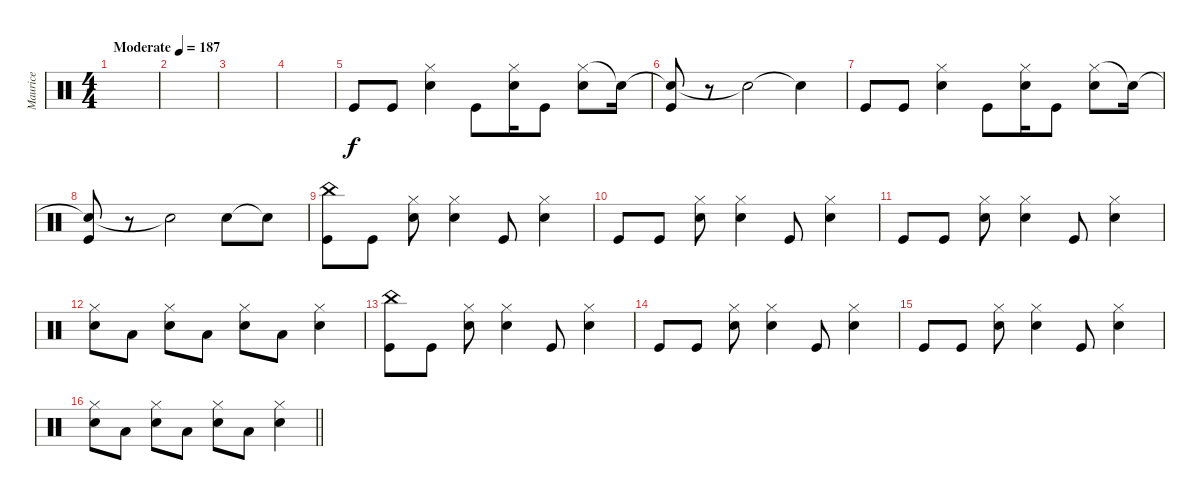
\track ("Maurice" "Maurice") {instrument percussion}
\staff {score}
\articulation defaults
\ts (4 4)
\tempo (187 "Moderate")
\clef neutral
\ks c
|
|
|
|
"Kick (hit)".8 "Kick (hit)".8 ("Hi-Hat (closed)" "Snare (hit) 2").4 "Kick (hit)".8 ("Hi-Hat (closed)" "Snare (hit) 2").16 "Kick (hit)".8 ("Hi-Hat (closed)" "Snare (hit) 2").8 "Snare (hit)"{t}.16 |
("Snare (hit)"{t} "Kick (hit)").8 r.8 "Snare (hit)"{t}.2 "Snare (hit)"{t}.4 |
"Kick (hit)".8 "Kick (hit)".8 ("Hi-Hat (closed)" "Snare (hit) 2").4 "Kick (hit)".8 ("Hi-Hat (closed)" "Snare (hit) 2").16 "Kick (hit)".8 ("Hi-Hat (closed)" "Snare (hit) 2").8 "Snare (hit)"{t}.16 |
("Snare (hit)"{t} "Kick (hit)").8 r.8 "Snare (hit)"{t}.2 "Snare (hit) 2".8 "Snare (hit)"{t}.8 |
("China (hit)" "Kick (hit)").8 "Kick (hit)".8 ("Hi-Hat (closed)" "Snare (hit) 2").8 ("Hi-Hat (closed)" "Snare (hit) 2").4 "Kick (hit)".8 ("Hi-Hat (closed)" "Snare (hit) 2").4 |
"Kick (hit)".8 "Kick (hit)".8 ("Hi-Hat (closed)" "Snare (hit) 2").8 ("Hi-Hat (closed)" "Snare (hit) 2").4 "Kick (hit)".8 ("Hi-Hat (closed)" "Snare (hit) 2").4 |
"Kick (hit)".8 "Kick (hit)".8 ("Hi-Hat (closed)" "Snare (hit) 2").8 ("Hi-Hat (closed)" "Snare (hit) 2").4 "Kick (hit)".8 ("Hi-Hat (closed)" "Snare (hit) 2").4 |
("Hi-Hat (closed)" "Snare (hit) 2").8 "Low Tom (hit)".8 ("Hi-Hat (closed)" "Snare (hit) 2").8 "Low Tom (hit)".8 ("Hi-Hat (closed)" "Snare (hit) 2").8 "Low Tom (hit)".8 ("Hi-Hat (closed)" "Snare (hit) 2").4 |
("China (hit)" "Kick (hit)").8 "Kick (hit)".8 ("Hi-Hat (closed)" "Snare (hit) 2").8 ("Hi-Hat (closed)" "Snare (hit) 2").4 "Kick (hit)".8 ("Hi-Hat (closed)" "Snare (hit) 2").4 |
"Kick (hit)".8 "Kick (hit)".8 ("Hi-Hat (closed)" "Snare (hit) 2").8 ("Hi-Hat (closed)" "Snare (hit) 2").4 "Kick (hit)".8 ("Hi-Hat (closed)" "Snare (hit) 2").4 |
"Kick (hit)".8 "Kick (hit)".8 ("Hi-Hat (closed)" "Snare (hit) 2").8 ("Hi-Hat (closed)" "Snare (hit) 2").4 "Kick (hit)".8 ("Hi-Hat (closed)" "Snare (hit) 2").4 |
\barLineRight lightlight
("Hi-Hat (closed)" "Snare (hit) 2").8 "Low Tom (hit)".8 ("Hi-Hat (closed)" "Snare (hit) 2").8 "Low Tom (hit)".8 ("Hi-Hat (closed)" "Snare (hit) 2").8 "Low Tom (hit)".8 ("Hi-Hat (closed)" "Snare (hit) 2").4
